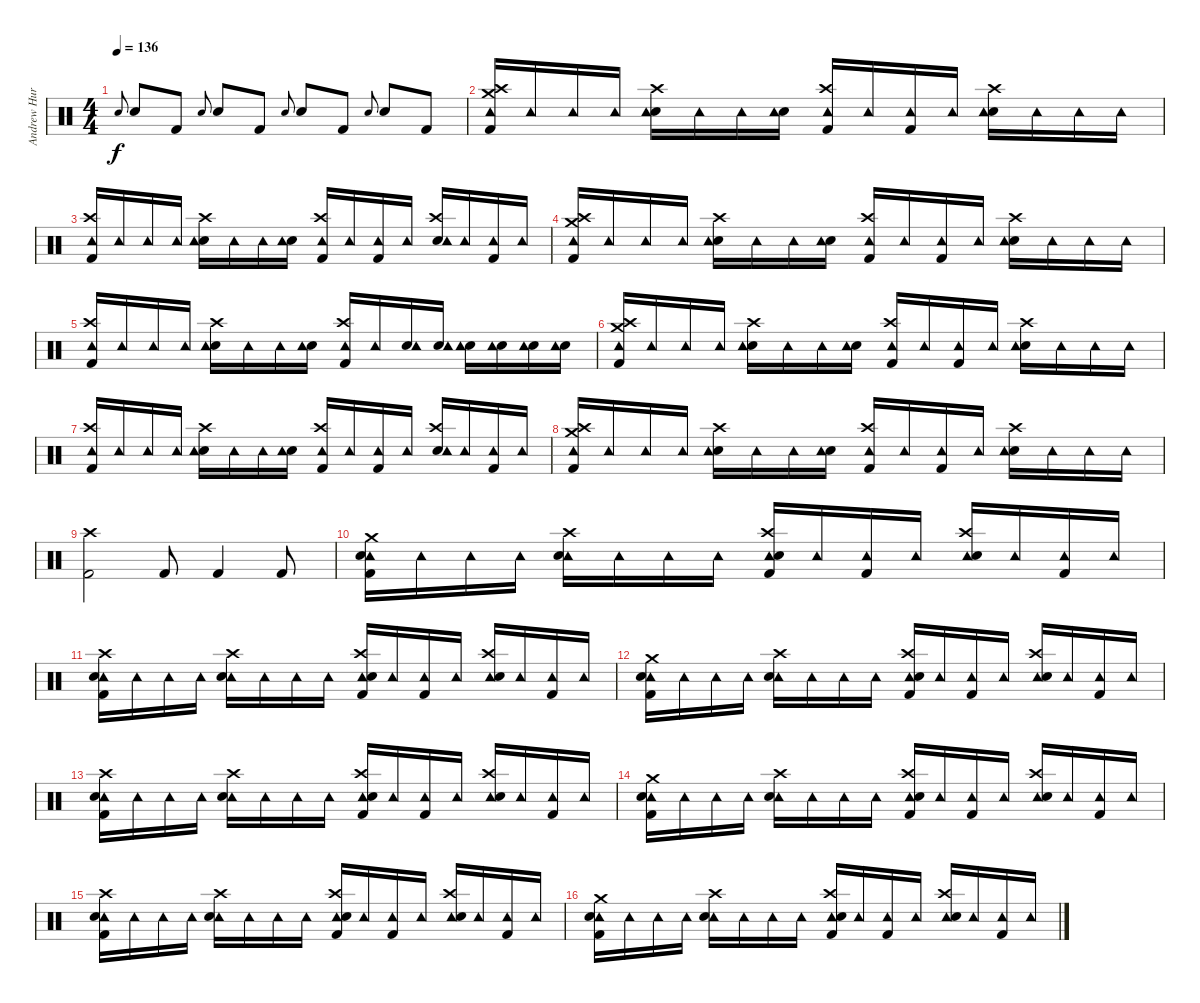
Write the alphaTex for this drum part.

\track ("Andrew Hurley (Drums)" "Andrew Hur") {instrument percussion}
\staff {score}
\articulation defaults
\ts (4 4)
\tempo 136
\clef neutral
\ks c "Snare (hit) 2".8{gr onbeat dy f} "Snare (hit) 2".8 "Kick (hit) 2".8 "Snare (hit) 2".8{gr onbeat} "Snare (hit) 2".8 "Kick (hit) 2".8 "Snare (hit) 2".8{gr onbeat} "Snare (hit) 2".8 "Kick (hit) 2".8 "Snare (hit) 2".8{gr onbeat} "Snare (hit) 2".8 "Kick (hit) 2".8
|
("Crash high (hit)" "Crash medium (hit)" "Kick (hit) 2" "Tambourine (hit)").16 "Tambourine (hit)".16 "Tambourine (hit)".16 "Tambourine (hit)".16 ("Crash high (hit)" "Snare (hit) 2" "Tambourine (hit)").16 "Tambourine (hit)".16 "Tambourine (hit)".16 ("Snare (hit) 2" "Tambourine (hit)").16 ("Crash high (hit)" "Kick (hit) 2" "Tambourine (hit)").16 "Tambourine (hit)".16 ("Kick (hit) 2" "Tambourine (hit)").16 "Tambourine (hit)".16 ("Crash high (hit)" "Snare (hit) 2" "Tambourine (hit)").16 "Tambourine (hit)".16 "Tambourine (hit)".16 "Tambourine (hit)".16 |
("Crash high (hit)" "Kick (hit) 2" "Tambourine (hit)").16 "Tambourine (hit)".16 "Tambourine (hit)".16 "Tambourine (hit)".16 ("Crash high (hit)" "Snare (hit) 2" "Tambourine (hit)").16 "Tambourine (hit)".16 "Tambourine (hit)".16 ("Snare (hit) 2" "Tambourine (hit)").16 ("Crash high (hit)" "Kick (hit) 2" "Tambourine (hit)").16 "Tambourine (hit)".16 ("Kick (hit) 2" "Tambourine (hit)").16 "Tambourine (hit)".16 ("Crash high (hit)" "Snare (hit) 2" "Tambourine (hit)").16 "Tambourine (hit)".16 ("Kick (hit) 2" "Tambourine (hit)").16 "Tambourine (hit)".16 |
("Crash high (hit)" "Crash medium (hit)" "Kick (hit) 2" "Tambourine (hit)").16 "Tambourine (hit)".16 "Tambourine (hit)".16 "Tambourine (hit)".16 ("Crash high (hit)" "Snare (hit) 2" "Tambourine (hit)").16 "Tambourine (hit)".16 "Tambourine (hit)".16 ("Snare (hit) 2" "Tambourine (hit)").16 ("Crash high (hit)" "Kick (hit) 2" "Tambourine (hit)").16 "Tambourine (hit)".16 ("Kick (hit) 2" "Tambourine (hit)").16 "Tambourine (hit)".16 ("Crash high (hit)" "Snare (hit) 2" "Tambourine (hit)").16 "Tambourine (hit)".16 "Tambourine (hit)".16 "Tambourine (hit)".16 |
("Crash high (hit)" "Kick (hit) 2" "Tambourine (hit)").16 "Tambourine (hit)".16 "Tambourine (hit)".16 "Tambourine (hit)".16 ("Crash high (hit)" "Snare (hit) 2" "Tambourine (hit)").16 "Tambourine (hit)".16 "Tambourine (hit)".16 ("Snare (hit) 2" "Tambourine (hit)").16 ("Crash high (hit)" "Kick (hit) 2" "Tambourine (hit)").16 "Tambourine (hit)".16 ("Snare (hit) 2" "Tambourine (hit)").16 ("Snare (hit) 2" "Tambourine (hit)").16 ("Snare (hit) 2" "Tambourine (hit)").16 ("Snare (hit) 2" "Tambourine (hit)").16 ("Snare (hit) 2" "Tambourine (hit)").16 ("Snare (hit) 2" "Tambourine (hit)").16 |
("Crash high (hit)" "Crash medium (hit)" "Kick (hit) 2" "Tambourine (hit)").16 "Tambourine (hit)".16 "Tambourine (hit)".16 "Tambourine (hit)".16 ("Crash high (hit)" "Snare (hit) 2" "Tambourine (hit)").16 "Tambourine (hit)".16 "Tambourine (hit)".16 ("Snare (hit) 2" "Tambourine (hit)").16 ("Crash high (hit)" "Kick (hit) 2" "Tambourine (hit)").16 "Tambourine (hit)".16 ("Kick (hit) 2" "Tambourine (hit)").16 "Tambourine (hit)".16 ("Crash high (hit)" "Snare (hit) 2" "Tambourine (hit)").16 "Tambourine (hit)".16 "Tambourine (hit)".16 "Tambourine (hit)".16 |
("Crash high (hit)" "Kick (hit) 2" "Tambourine (hit)").16 "Tambourine (hit)".16 "Tambourine (hit)".16 "Tambourine (hit)".16 ("Crash high (hit)" "Snare (hit) 2" "Tambourine (hit)").16 "Tambourine (hit)".16 "Tambourine (hit)".16 ("Snare (hit) 2" "Tambourine (hit)").16 ("Crash high (hit)" "Kick (hit) 2" "Tambourine (hit)").16 "Tambourine (hit)".16 ("Kick (hit) 2" "Tambourine (hit)").16 "Tambourine (hit)".16 ("Crash high (hit)" "Snare (hit) 2" "Tambourine (hit)").16 "Tambourine (hit)".16 ("Kick (hit) 2" "Tambourine (hit)").16 "Tambourine (hit)".16 |
("Crash high (hit)" "Crash medium (hit)" "Kick (hit) 2" "Tambourine (hit)").16 "Tambourine (hit)".16 "Tambourine (hit)".16 "Tambourine (hit)".16 ("Crash high (hit)" "Snare (hit) 2" "Tambourine (hit)").16 "Tambourine (hit)".16 "Tambourine (hit)".16 ("Snare (hit) 2" "Tambourine (hit)").16 ("Crash high (hit)" "Kick (hit) 2" "Tambourine (hit)").16 "Tambourine (hit)".16 ("Kick (hit) 2" "Tambourine (hit)").16 "Tambourine (hit)".16 ("Crash high (hit)" "Snare (hit) 2" "Tambourine (hit)").16 "Tambourine (hit)".16 "Tambourine (hit)".16 "Tambourine (hit)".16 |
("Crash high (hit)" "Kick (hit) 2").2 "Kick (hit) 2".8 "Kick (hit) 2".4 "Kick (hit) 2".8 |
("Crash medium (hit)" "Tambourine (hit)" "Snare (hit) 2" "Kick (hit) 2").16 "Tambourine (hit)".16 "Tambourine (hit)".16 "Tambourine (hit)".16 ("Crash high (hit)" "Tambourine (hit)" "Snare (hit) 2").16 "Tambourine (hit)".16 "Tambourine (hit)".16 "Tambourine (hit)".16 ("Crash high (hit)" "Tambourine (hit)" "Snare (hit) 2" "Kick (hit) 2").16 "Tambourine (hit)".16 ("Tambourine (hit)" "Kick (hit) 2").16 "Tambourine (hit)".16 ("Crash high (hit)" "Tambourine (hit)" "Snare (hit) 2").16 "Tambourine (hit)".16 ("Tambourine (hit)" "Kick (hit) 2").16 "Tambourine (hit)".16 |
("Crash high (hit)" "Tambourine (hit)" "Snare (hit) 2" "Kick (hit) 2").16 "Tambourine (hit)".16 "Tambourine (hit)".16 "Tambourine (hit)".16 ("Crash high (hit)" "Tambourine (hit)" "Snare (hit) 2").16 "Tambourine (hit)".16 "Tambourine (hit)".16 "Tambourine (hit)".16 ("Crash high (hit)" "Tambourine (hit)" "Snare (hit) 2" "Kick (hit) 2").16 "Tambourine (hit)".16 ("Tambourine (hit)" "Kick (hit) 2").16 "Tambourine (hit)".16 ("Crash high (hit)" "Tambourine (hit)" "Snare (hit) 2").16 "Tambourine (hit)".16 ("Tambourine (hit)" "Kick (hit) 2").16 "Tambourine (hit)".16 |
("Crash medium (hit)" "Tambourine (hit)" "Snare (hit) 2" "Kick (hit) 2").16 "Tambourine (hit)".16 "Tambourine (hit)".16 "Tambourine (hit)".16 ("Crash high (hit)" "Tambourine (hit)" "Snare (hit) 2").16 "Tambourine (hit)".16 "Tambourine (hit)".16 "Tambourine (hit)".16 ("Crash high (hit)" "Tambourine (hit)" "Snare (hit) 2" "Kick (hit) 2").16 "Tambourine (hit)".16 ("Tambourine (hit)" "Kick (hit) 2").16 "Tambourine (hit)".16 ("Crash high (hit)" "Tambourine (hit)" "Snare (hit) 2").16 "Tambourine (hit)".16 ("Tambourine (hit)" "Kick (hit) 2").16 "Tambourine (hit)".16 |
("Crash high (hit)" "Tambourine (hit)" "Snare (hit) 2" "Kick (hit) 2").16 "Tambourine (hit)".16 "Tambourine (hit)".16 "Tambourine (hit)".16 ("Crash high (hit)" "Tambourine (hit)" "Snare (hit) 2").16 "Tambourine (hit)".16 "Tambourine (hit)".16 "Tambourine (hit)".16 ("Crash high (hit)" "Tambourine (hit)" "Snare (hit) 2" "Kick (hit) 2").16 "Tambourine (hit)".16 ("Tambourine (hit)" "Kick (hit) 2").16 "Tambourine (hit)".16 ("Crash high (hit)" "Tambourine (hit)" "Snare (hit) 2").16 "Tambourine (hit)".16 ("Tambourine (hit)" "Kick (hit) 2").16 "Tambourine (hit)".16 |
("Crash medium (hit)" "Tambourine (hit)" "Snare (hit) 2" "Kick (hit) 2").16 "Tambourine (hit)".16 "Tambourine (hit)".16 "Tambourine (hit)".16 ("Crash high (hit)" "Tambourine (hit)" "Snare (hit) 2").16 "Tambourine (hit)".16 "Tambourine (hit)".16 "Tambourine (hit)".16 ("Crash high (hit)" "Tambourine (hit)" "Snare (hit) 2" "Kick (hit) 2").16 "Tambourine (hit)".16 ("Tambourine (hit)" "Kick (hit) 2").16 "Tambourine (hit)".16 ("Crash high (hit)" "Tambourine (hit)" "Snare (hit) 2").16 "Tambourine (hit)".16 ("Tambourine (hit)" "Kick (hit) 2").16 "Tambourine (hit)".16 |
("Crash high (hit)" "Tambourine (hit)" "Snare (hit) 2" "Kick (hit) 2").16 "Tambourine (hit)".16 "Tambourine (hit)".16 "Tambourine (hit)".16 ("Crash high (hit)" "Tambourine (hit)" "Snare (hit) 2").16 "Tambourine (hit)".16 "Tambourine (hit)".16 "Tambourine (hit)".16 ("Crash high (hit)" "Tambourine (hit)" "Snare (hit) 2" "Kick (hit) 2").16 "Tambourine (hit)".16 ("Tambourine (hit)" "Kick (hit) 2").16 "Tambourine (hit)".16 ("Crash high (hit)" "Tambourine (hit)" "Snare (hit) 2").16 "Tambourine (hit)".16 ("Tambourine (hit)" "Kick (hit) 2").16 "Tambourine (hit)".16 |
("Crash medium (hit)" "Tambourine (hit)" "Snare (hit) 2" "Kick (hit) 2").16 "Tambourine (hit)".16 "Tambourine (hit)".16 "Tambourine (hit)".16 ("Crash high (hit)" "Tambourine (hit)" "Snare (hit) 2").16 "Tambourine (hit)".16 "Tambourine (hit)".16 "Tambourine (hit)".16 ("Crash high (hit)" "Tambourine (hit)" "Snare (hit) 2" "Kick (hit) 2").16 "Tambourine (hit)".16 ("Tambourine (hit)" "Kick (hit) 2").16 "Tambourine (hit)".16 ("Crash high (hit)" "Tambourine (hit)" "Snare (hit) 2").16 "Tambourine (hit)".16 ("Tambourine (hit)" "Kick (hit) 2").16 "Tambourine (hit)".16
